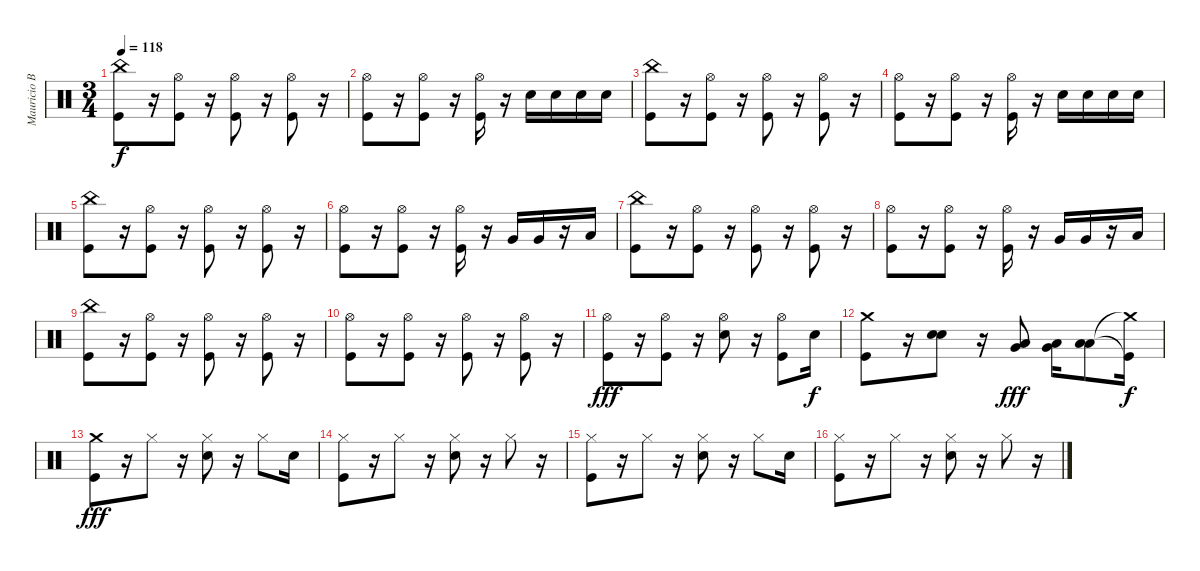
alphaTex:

\track ("Mauricio Basualto" "Mauricio B") {instrument percussion}
\staff {score}
\articulation defaults
\ts (3 4)
\tempo 118
\clef neutral
\ks c
("China (hit)" "Kick (hit)").8{dy f} r.16 ("Hi-Hat (open)" "Kick (hit)").8 r.16 ("Hi-Hat (open)" "Kick (hit)").8 r.16 ("Hi-Hat (open)" "Kick (hit)").8 r.16 |
("Hi-Hat (open)" "Kick (hit)").8 r.16 ("Hi-Hat (open)" "Kick (hit)").8 r.16 ("Hi-Hat (open)" "Kick (hit)").16 r.16 "Snare (hit) 2".16 "Snare (hit) 2".16 "Snare (hit) 2".16 "Snare (hit) 2".16 |
("China (hit)" "Kick (hit)").8 r.16 ("Hi-Hat (open)" "Kick (hit)").8 r.16 ("Hi-Hat (open)" "Kick (hit)").8 r.16 ("Hi-Hat (open)" "Kick (hit)").8 r.16 |
("Hi-Hat (open)" "Kick (hit)").8 r.16 ("Hi-Hat (open)" "Kick (hit)").8 r.16 ("Hi-Hat (open)" "Kick (hit)").16 r.16 "Snare (hit) 2".16 "Snare (hit) 2".16 "Snare (hit) 2".16 "Snare (hit) 2".16 |
("China (hit)" "Kick (hit)").8 r.16 ("Hi-Hat (open)" "Kick (hit)").8 r.16 ("Hi-Hat (open)" "Kick (hit)").8 r.16 ("Hi-Hat (open)" "Kick (hit)").8 r.16 |
("Hi-Hat (open)" "Kick (hit)").8 r.16 ("Hi-Hat (open)" "Kick (hit)").8 r.16 ("Hi-Hat (open)" "Kick (hit)").16 r.16 "Very Low Tom (hit)".16 "Very Low Tom (hit)".16 r.16 "Low Floor Tom (hit)".16 |
("China (hit)" "Kick (hit)").8 r.16 ("Hi-Hat (open)" "Kick (hit)").8 r.16 ("Hi-Hat (open)" "Kick (hit)").8 r.16 ("Hi-Hat (open)" "Kick (hit)").8 r.16 |
("Hi-Hat (open)" "Kick (hit)").8 r.16 ("Hi-Hat (open)" "Kick (hit)").8 r.16 ("Hi-Hat (open)" "Kick (hit)").16 r.16 "Very Low Tom (hit)".16 "Very Low Tom (hit)".16 r.16 "Low Floor Tom (hit)".16 |
("China (hit)" "Kick (hit)").8 r.16 ("Hi-Hat (open)" "Kick (hit)").8 r.16 ("Hi-Hat (open)" "Kick (hit)").8 r.16 ("Hi-Hat (open)" "Kick (hit)").8 r.16 |
("Hi-Hat (open)" "Kick (hit)").8 r.16 ("Hi-Hat (open)" "Kick (hit)").8 r.16 ("Hi-Hat (open)" "Kick (hit)").8 r.16 ("Hi-Hat (open)" "Kick (hit)").8 r.16 |
("Hi-Hat (open)" "Kick (hit)").8{dy fff} r.16 ("Hi-Hat (open)" "Kick (hit)").8 r.16 ("Hi-Hat (open)" "Snare (hit) 2").8 r.16 ("Hi-Hat (open)" "Kick (hit)").8 "Snare (hit) 2".16{dy f} |
("Kick (hit)" "Crash medium (hit)").8 r.16 ("Snare (hit) 2" "Electric Snare (hit)").8 r.16 ("Low Tom (hit)" "Very Low Tom (hit)").8{dy fff} ("Low Floor Tom (hit)" "Very Low Tom (hit)").16 ("Low Floor Tom (hit)" "Low Floor Tom (hit)").8 ("Crash medium (hit)"{t} "Kick (hit)"{t}).16{dy f} |
("Crash medium (hit)" "Kick (hit)").8{dy fff} r.16 "Hi-Hat (closed)".8 r.16 ("Hi-Hat (closed)" "Snare (hit) 2").8 r.16 "Hi-Hat (closed)".8 "Snare (hit) 2".16 |
("Hi-Hat (closed)" "Kick (hit)").8 r.16 "Hi-Hat (closed)".8 r.16 ("Hi-Hat (closed)" "Snare (hit) 2").8 r.16 "Hi-Hat (closed)".8 r.16 |
("Hi-Hat (closed)" "Kick (hit)").8 r.16 "Hi-Hat (closed)".8 r.16 ("Hi-Hat (closed)" "Snare (hit) 2").8 r.16 "Hi-Hat (closed)".8 "Snare (hit) 2".16 |
("Hi-Hat (closed)" "Kick (hit)").8 r.16 "Hi-Hat (closed)".8 r.16 ("Hi-Hat (closed)" "Snare (hit) 2").8 r.16 "Hi-Hat (closed)".8 r.16
